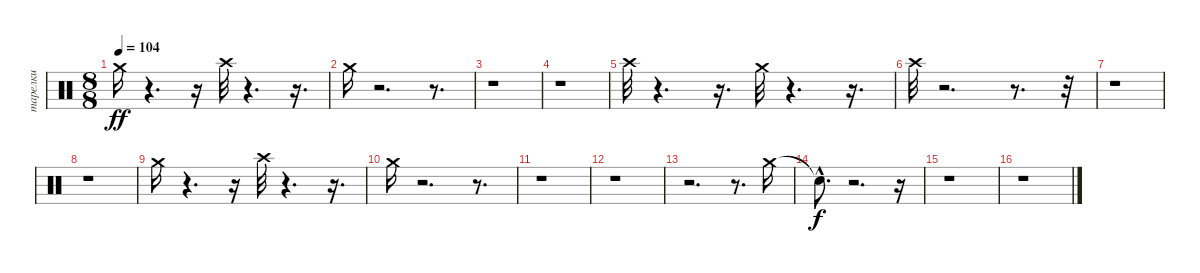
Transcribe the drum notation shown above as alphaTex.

\track ("тарелки" "тарелки") {instrument percussion}
\staff {score}
\articulation defaults
\ts (8 8)
\tempo 104
\clef neutral
\ks c "Crash medium (hit)".16{dy ff}
r.4{d} r.16 "Crash high (hit)".32 r.4{d} r.16{d} |
"Crash medium (hit)".16 r.2{d} r.8{d} |
r.1 |
r.1 |
"Crash high (hit)".32 r.4{d} r.16{d} "Crash medium (hit)".32 r.4{d} r.16{d} |
"Crash high (hit)".32 r.2{d} r.8{d} r.32 |
r.1 |
r.1 |
"Crash medium (hit)".16 r.4{d} r.16 "Crash high (hit)".32 r.4{d} r.16{d} |
"Crash medium (hit)".16 r.2{d} r.8{d} |
r.1 |
r.1 |
r.2{d} r.8{d} "Crash medium (hit)".16 |
"Snare (hit)"{hac t}.8{d dy f} r.2{d} r.16 |
r.1 |
r.1
